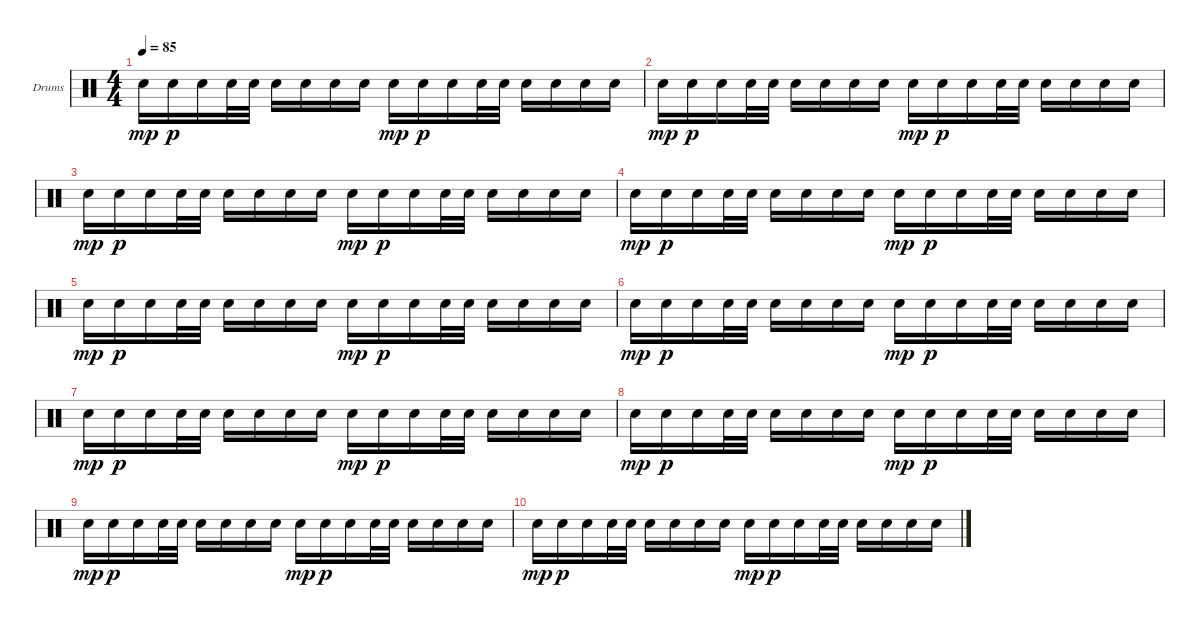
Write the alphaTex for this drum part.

\defaultSystemsLayout 4
\bracketExtendMode groupsimilarinstruments
\firstSystemTrackNameOrientation horizontal
\otherSystemsTrackNameOrientation horizontal
\track ("Drumkit" "Drums") {instrument percussion}
\staff {score}
\articulation defaults
\ts (4 4)
\tempo 85
\clef neutral
\ks c "Snare (hit) 2".16{dy mp} "Snare (hit) 2".16{dy p} "Snare (hit) 2".16 "Snare (hit) 2".32 "Snare (hit) 2".32 "Snare (hit) 2".16 "Snare (hit) 2".16 "Snare (hit) 2".16 "Snare (hit) 2".16 "Snare (hit) 2".16{dy mp} "Snare (hit) 2".16{dy p} "Snare (hit) 2".16 "Snare (hit) 2".32 "Snare (hit) 2".32 "Snare (hit) 2".16 "Snare (hit) 2".16 "Snare (hit) 2".16 "Snare (hit) 2".16
|
"Snare (hit) 2".16{dy mp} "Snare (hit) 2".16{dy p} "Snare (hit) 2".16 "Snare (hit) 2".32 "Snare (hit) 2".32 "Snare (hit) 2".16 "Snare (hit) 2".16 "Snare (hit) 2".16 "Snare (hit) 2".16 "Snare (hit) 2".16{dy mp} "Snare (hit) 2".16{dy p} "Snare (hit) 2".16 "Snare (hit) 2".32 "Snare (hit) 2".32 "Snare (hit) 2".16 "Snare (hit) 2".16 "Snare (hit) 2".16 "Snare (hit) 2".16 |
"Snare (hit) 2".16{dy mp} "Snare (hit) 2".16{dy p} "Snare (hit) 2".16 "Snare (hit) 2".32 "Snare (hit) 2".32 "Snare (hit) 2".16 "Snare (hit) 2".16 "Snare (hit) 2".16 "Snare (hit) 2".16 "Snare (hit) 2".16{dy mp} "Snare (hit) 2".16{dy p} "Snare (hit) 2".16 "Snare (hit) 2".32 "Snare (hit) 2".32 "Snare (hit) 2".16 "Snare (hit) 2".16 "Snare (hit) 2".16 "Snare (hit) 2".16 |
"Snare (hit) 2".16{dy mp} "Snare (hit) 2".16{dy p} "Snare (hit) 2".16 "Snare (hit) 2".32 "Snare (hit) 2".32 "Snare (hit) 2".16 "Snare (hit) 2".16 "Snare (hit) 2".16 "Snare (hit) 2".16 "Snare (hit) 2".16{dy mp} "Snare (hit) 2".16{dy p} "Snare (hit) 2".16 "Snare (hit) 2".32 "Snare (hit) 2".32 "Snare (hit) 2".16 "Snare (hit) 2".16 "Snare (hit) 2".16 "Snare (hit) 2".16 |
"Snare (hit) 2".16{dy mp} "Snare (hit) 2".16{dy p} "Snare (hit) 2".16 "Snare (hit) 2".32 "Snare (hit) 2".32 "Snare (hit) 2".16 "Snare (hit) 2".16 "Snare (hit) 2".16 "Snare (hit) 2".16 "Snare (hit) 2".16{dy mp} "Snare (hit) 2".16{dy p} "Snare (hit) 2".16 "Snare (hit) 2".32 "Snare (hit) 2".32 "Snare (hit) 2".16 "Snare (hit) 2".16 "Snare (hit) 2".16 "Snare (hit) 2".16 |
"Snare (hit) 2".16{dy mp} "Snare (hit) 2".16{dy p} "Snare (hit) 2".16 "Snare (hit) 2".32 "Snare (hit) 2".32 "Snare (hit) 2".16 "Snare (hit) 2".16 "Snare (hit) 2".16 "Snare (hit) 2".16 "Snare (hit) 2".16{dy mp} "Snare (hit) 2".16{dy p} "Snare (hit) 2".16 "Snare (hit) 2".32 "Snare (hit) 2".32 "Snare (hit) 2".16 "Snare (hit) 2".16 "Snare (hit) 2".16 "Snare (hit) 2".16 |
"Snare (hit) 2".16{dy mp} "Snare (hit) 2".16{dy p} "Snare (hit) 2".16 "Snare (hit) 2".32 "Snare (hit) 2".32 "Snare (hit) 2".16 "Snare (hit) 2".16 "Snare (hit) 2".16 "Snare (hit) 2".16 "Snare (hit) 2".16{dy mp} "Snare (hit) 2".16{dy p} "Snare (hit) 2".16 "Snare (hit) 2".32 "Snare (hit) 2".32 "Snare (hit) 2".16 "Snare (hit) 2".16 "Snare (hit) 2".16 "Snare (hit) 2".16 |
"Snare (hit) 2".16{dy mp} "Snare (hit) 2".16{dy p} "Snare (hit) 2".16 "Snare (hit) 2".32 "Snare (hit) 2".32 "Snare (hit) 2".16 "Snare (hit) 2".16 "Snare (hit) 2".16 "Snare (hit) 2".16 "Snare (hit) 2".16{dy mp} "Snare (hit) 2".16{dy p} "Snare (hit) 2".16 "Snare (hit) 2".32 "Snare (hit) 2".32 "Snare (hit) 2".16 "Snare (hit) 2".16 "Snare (hit) 2".16 "Snare (hit) 2".16 |
"Snare (hit) 2".16{dy mp} "Snare (hit) 2".16{dy p} "Snare (hit) 2".16 "Snare (hit) 2".32 "Snare (hit) 2".32 "Snare (hit) 2".16 "Snare (hit) 2".16 "Snare (hit) 2".16 "Snare (hit) 2".16 "Snare (hit) 2".16{dy mp} "Snare (hit) 2".16{dy p} "Snare (hit) 2".16 "Snare (hit) 2".32 "Snare (hit) 2".32 "Snare (hit) 2".16 "Snare (hit) 2".16 "Snare (hit) 2".16 "Snare (hit) 2".16 |
"Snare (hit) 2".16{dy mp} "Snare (hit) 2".16{dy p} "Snare (hit) 2".16 "Snare (hit) 2".32 "Snare (hit) 2".32 "Snare (hit) 2".16 "Snare (hit) 2".16 "Snare (hit) 2".16 "Snare (hit) 2".16 "Snare (hit) 2".16{dy mp} "Snare (hit) 2".16{dy p} "Snare (hit) 2".16 "Snare (hit) 2".32 "Snare (hit) 2".32 "Snare (hit) 2".16 "Snare (hit) 2".16 "Snare (hit) 2".16 "Snare (hit) 2".16
